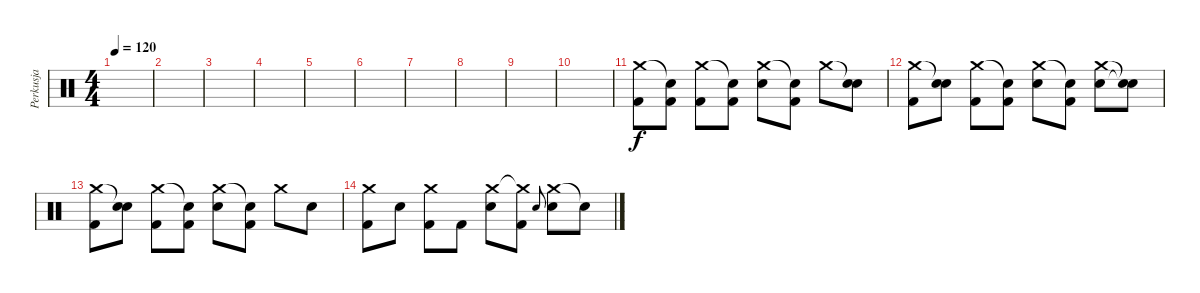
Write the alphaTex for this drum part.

\track ("Perkusja" "Perkusja") {instrument percussion}
\staff {score}
\articulation defaults
\ts (4 4)
\tempo 120
\clef neutral
\ks c
|
|
|
|
|
|
|
|
|
|
("Crash medium (hit)" "Kick (hit) 2").8 ("Snare (hit)"{t} "Kick (hit) 2").8 ("Crash medium (hit)" "Kick (hit) 2").8 ("Snare (hit)"{t} "Kick (hit) 2").8 ("Crash medium (hit)" "Electric Snare (hit)").8 ("Snare (hit)"{t} "Kick (hit) 2").8 "Crash medium (hit)".8 ("Snare (hit)"{t} "Electric Snare (hit)").8 |
("Crash medium (hit)" "Kick (hit) 2").8 ("Snare (hit)"{t} "Electric Snare (hit)").8 ("Crash medium (hit)" "Kick (hit) 2").8 ("Snare (hit)"{t} "Kick (hit) 2").8 ("Crash medium (hit)" "Electric Snare (hit)").8 ("Snare (hit)"{t} "Kick (hit) 2").8 ("Crash medium (hit)" "Electric Snare (hit)").8 ("Snare (hit)"{t} "Electric Snare (hit)"{t}).8 |
("Crash medium (hit)" "Kick (hit) 2").8 ("Snare (hit)"{t} "Electric Snare (hit)").8 ("Crash medium (hit)" "Kick (hit) 2").8 ("Snare (hit)"{t} "Kick (hit) 2").8 ("Crash medium (hit)" "Electric Snare (hit)").8 ("Snare (hit)"{t} "Kick (hit) 2").8 "Crash medium (hit)".8 "Electric Snare (hit)".8 |
("Crash medium (hit)" "Kick (hit) 2").8 "Electric Snare (hit)".8 ("Crash medium (hit)" "Kick (hit) 2").8 "Kick (hit) 2".8 ("Crash medium (hit)" "Electric Snare (hit)").8 ("Crash medium (hit)"{t} "Kick (hit) 2").8 "Electric Snare (hit)".8{gr onbeat} ("Crash medium (hit)" "Electric Snare (hit)").8 "Snare (hit)"{t}.8
